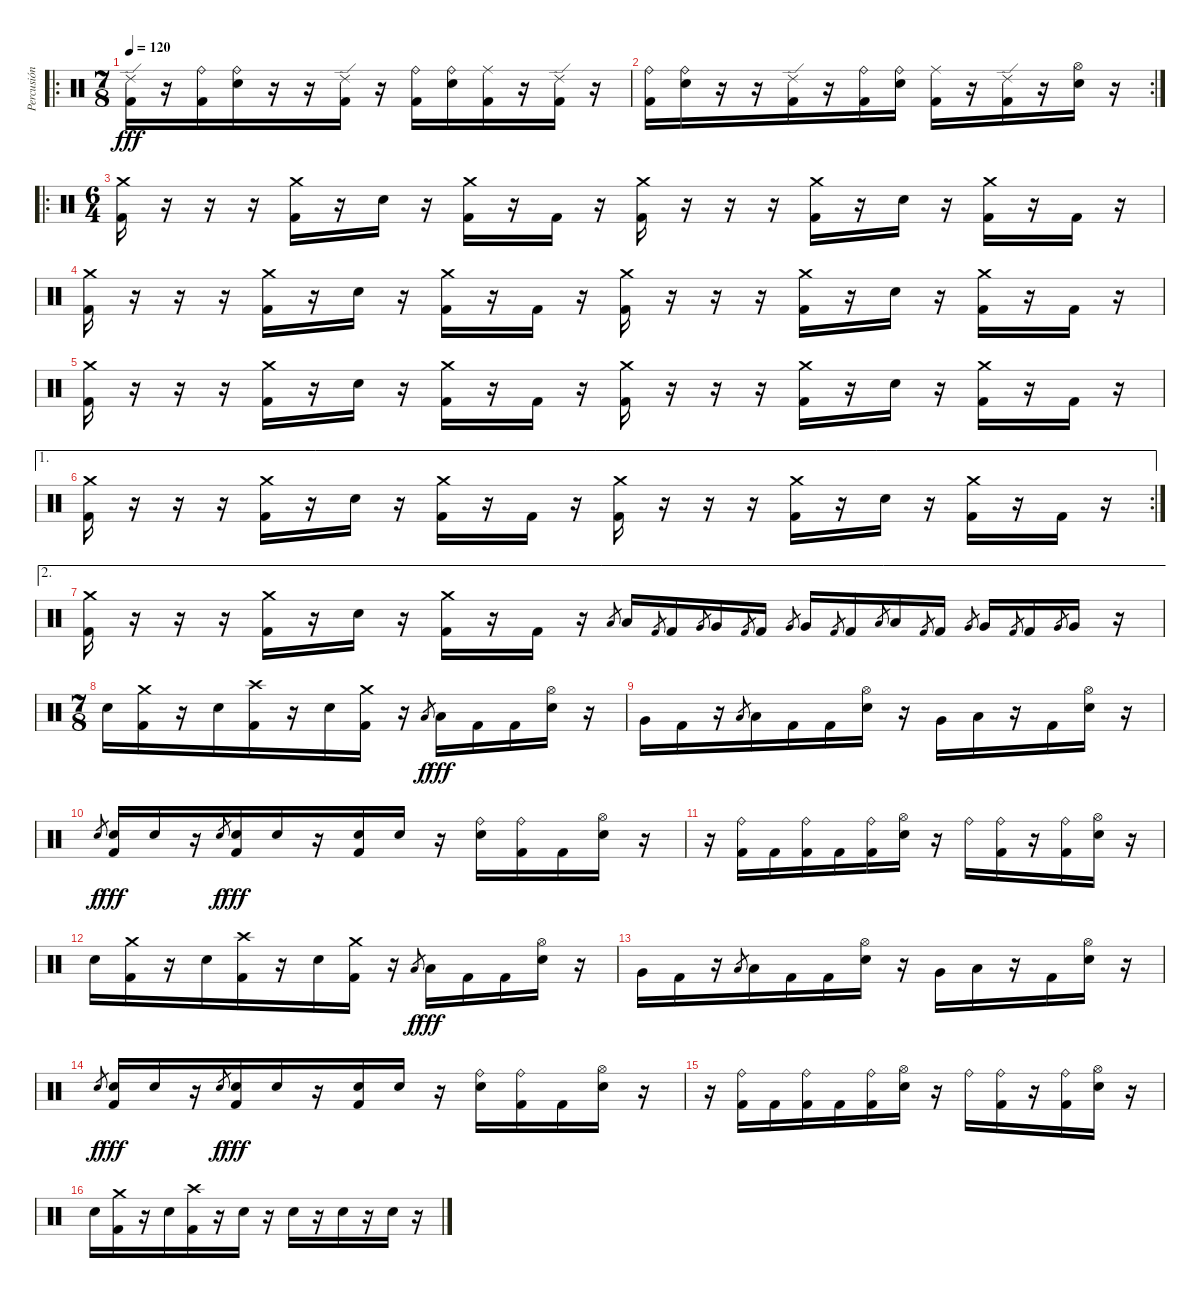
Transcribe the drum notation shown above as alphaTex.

\track ("Percusión" "Percusión") {instrument percussion}
\staff {score}
\articulation defaults
\ro
\ts (7 8)
\tempo 120
\clef neutral
\ks c
("Ride (edge) 2" "Kick (hit) 2").16{dy fff} r.16 ("Ride (bell)" "Kick (hit) 2").16 ("Ride (bell)" "Electric Snare (hit)").16 r.16 r.16 ("Ride (edge) 2" "Kick (hit) 2").16 r.16 ("Ride (bell)" "Kick (hit) 2").16 ("Ride (bell)" "Electric Snare (hit)").16 ("Ride (middle)" "Kick (hit) 2").16 r.16 ("Ride (edge) 2" "Kick (hit) 2").16 r.16 |
\rc 2
("Ride (bell)" "Kick (hit) 2").16 ("Ride (bell)" "Electric Snare (hit)").16 r.16 r.16 ("Ride (edge) 2" "Kick (hit) 2").16 r.16 ("Ride (bell)" "Kick (hit) 2").16 ("Ride (bell)" "Electric Snare (hit)").16 ("Ride (middle)" "Kick (hit) 2").16 r.16 ("Ride (edge) 2" "Kick (hit) 2").16 r.16 ("Hi-Hat (open)" "Electric Snare (hit)").16 r.16 |
\ro
\ts (6 4)
("Crash medium (hit)" "Kick (hit) 2").16 r.16 r.16 r.16 ("Crash medium (hit)" "Kick (hit) 2").16 r.16 "Electric Snare (hit)".16 r.16 ("Crash medium (hit)" "Kick (hit) 2").16 r.16 "Kick (hit) 2".16 r.16 ("Crash medium (hit)" "Kick (hit) 2").16 r.16 r.16 r.16 ("Crash medium (hit)" "Kick (hit) 2").16 r.16 "Electric Snare (hit)".16 r.16 ("Crash medium (hit)" "Kick (hit) 2").16 r.16 "Kick (hit) 2".16 r.16 |
("Crash medium (hit)" "Kick (hit) 2").16 r.16 r.16 r.16 ("Crash medium (hit)" "Kick (hit) 2").16 r.16 "Electric Snare (hit)".16 r.16 ("Crash medium (hit)" "Kick (hit) 2").16 r.16 "Kick (hit) 2".16 r.16 ("Crash medium (hit)" "Kick (hit) 2").16 r.16 r.16 r.16 ("Crash medium (hit)" "Kick (hit) 2").16 r.16 "Electric Snare (hit)".16 r.16 ("Crash medium (hit)" "Kick (hit) 2").16 r.16 "Kick (hit) 2".16 r.16 |
("Crash medium (hit)" "Kick (hit) 2").16 r.16 r.16 r.16 ("Crash medium (hit)" "Kick (hit) 2").16 r.16 "Electric Snare (hit)".16 r.16 ("Crash medium (hit)" "Kick (hit) 2").16 r.16 "Kick (hit) 2".16 r.16 ("Crash medium (hit)" "Kick (hit) 2").16 r.16 r.16 r.16 ("Crash medium (hit)" "Kick (hit) 2").16 r.16 "Electric Snare (hit)".16 r.16 ("Crash medium (hit)" "Kick (hit) 2").16 r.16 "Kick (hit) 2".16 r.16 |
\ae 1
\rc 2
("Crash medium (hit)" "Kick (hit) 2").16 r.16 r.16 r.16 ("Crash medium (hit)" "Kick (hit) 2").16 r.16 "Electric Snare (hit)".16 r.16 ("Crash medium (hit)" "Kick (hit) 2").16 r.16 "Kick (hit) 2".16 r.16 ("Crash medium (hit)" "Kick (hit) 2").16 r.16 r.16 r.16 ("Crash medium (hit)" "Kick (hit) 2").16 r.16 "Electric Snare (hit)".16 r.16 ("Crash medium (hit)" "Kick (hit) 2").16 r.16 "Kick (hit) 2".16 r.16 |
\ae 2
("Crash medium (hit)" "Kick (hit) 2").16 r.16 r.16 r.16 ("Crash medium (hit)" "Kick (hit) 2").16 r.16 "Electric Snare (hit)".16 r.16 ("Crash medium (hit)" "Kick (hit) 2").16 r.16 "Kick (hit) 2".16 r.16 "Low Tom (hit)".8{gr} "Low Tom (hit)".16 "Kick (hit) 2".8{gr} "Kick (hit) 2".16 "Very Low Tom (hit)".8{gr} "Very Low Tom (hit)".16 "Kick (hit) 2".8{gr} "Kick (hit) 2".16 "Very Low Tom (hit)".8{gr} "Very Low Tom (hit)".16 "Kick (hit) 2".8{gr} "Kick (hit) 2".16 "Low Tom (hit)".8{gr} "Low Tom (hit)".16 "Kick (hit) 2".8{gr} "Kick (hit) 2".16 "Very Low Tom (hit)".8{gr} "Very Low Tom (hit)".16 "Kick (hit) 2".8{gr} "Kick (hit) 2".16 "Very Low Tom (hit)".8{gr} "Very Low Tom (hit)".16 r.16 |
\ts (7 8)
"Electric Snare (hit)".16{volume 16} ("Crash medium (hit)" "Kick (hit) 2").16 r.16 "Electric Snare (hit)".16 ("Crash high (hit)" "Kick (hit) 2").16 r.16 "Electric Snare (hit)".16 ("Crash medium (hit)" "Kick (hit) 2").16 r.16 "Low Tom (hit)".8{gr dy f} "Low Tom (hit)".16{dy fff} "Kick (hit) 2".16 "Kick (hit) 2".16 ("Hi-Hat (open)" "Electric Snare (hit)").16 r.16 |
"Very Low Tom (hit)".16 "Kick (hit) 2".16 r.16 "Low Tom (hit)".8{gr} "Low Tom (hit)".16 "Kick (hit) 2".16 "Kick (hit) 2".16 ("Hi-Hat (open)" "Electric Snare (hit)").16 r.16 "Very Low Tom (hit)".16 "Low Tom (hit)".16 r.16 "Kick (hit) 2".16 ("Hi-Hat (open)" "Electric Snare (hit)").16 r.16 |
"Electric Snare (hit)".8{gr dy f} ("Electric Snare (hit)" "Kick (hit) 2").16{dy fff} "Electric Snare (hit)".16 r.16 "Electric Snare (hit)".8{gr dy f} ("Kick (hit) 2" "Electric Snare (hit)").16{dy fff} "Electric Snare (hit)".16 r.16 ("Electric Snare (hit)" "Kick (hit) 2").16 "Electric Snare (hit)".16 r.16 ("Ride (bell)" "Electric Snare (hit)").16 ("Ride (bell)" "Kick (hit) 2").16 "Kick (hit) 2".16 ("Hi-Hat (open)" "Electric Snare (hit)").16 r.16 |
r.16 ("Ride (bell)" "Kick (hit) 2").16 "Kick (hit) 2".16 ("Ride (bell)" "Kick (hit) 2").16 "Kick (hit) 2".16 ("Ride (bell)" "Kick (hit) 2").16 ("Hi-Hat (open)" "Electric Snare (hit)").16 r.16 "Ride (bell)".16 ("Ride (bell)" "Kick (hit) 2").16 r.16 ("Ride (bell)" "Kick (hit) 2").16 ("Hi-Hat (open)" "Electric Snare (hit)").16 r.16 |
"Electric Snare (hit)".16 ("Crash medium (hit)" "Kick (hit) 2").16 r.16 "Electric Snare (hit)".16 ("Crash high (hit)" "Kick (hit) 2").16 r.16 "Electric Snare (hit)".16 ("Crash medium (hit)" "Kick (hit) 2").16 r.16 "Low Tom (hit)".8{gr dy f} "Low Tom (hit)".16{dy fff} "Kick (hit) 2".16 "Kick (hit) 2".16 ("Hi-Hat (open)" "Electric Snare (hit)").16 r.16 |
"Very Low Tom (hit)".16 "Kick (hit) 2".16 r.16 "Low Tom (hit)".8{gr} "Low Tom (hit)".16 "Kick (hit) 2".16 "Kick (hit) 2".16 ("Hi-Hat (open)" "Electric Snare (hit)").16 r.16 "Very Low Tom (hit)".16 "Low Tom (hit)".16 r.16 "Kick (hit) 2".16 ("Hi-Hat (open)" "Electric Snare (hit)").16 r.16 |
"Electric Snare (hit)".8{gr dy f} ("Electric Snare (hit)" "Kick (hit) 2").16{dy fff} "Electric Snare (hit)".16 r.16 "Electric Snare (hit)".8{gr dy f} ("Kick (hit) 2" "Electric Snare (hit)").16{dy fff} "Electric Snare (hit)".16 r.16 ("Electric Snare (hit)" "Kick (hit) 2").16 "Electric Snare (hit)".16 r.16 ("Ride (bell)" "Electric Snare (hit)").16 ("Ride (bell)" "Kick (hit) 2").16 "Kick (hit) 2".16 ("Hi-Hat (open)" "Electric Snare (hit)").16 r.16 |
r.16 ("Ride (bell)" "Kick (hit) 2").16 "Kick (hit) 2".16 ("Ride (bell)" "Kick (hit) 2").16 "Kick (hit) 2".16 ("Ride (bell)" "Kick (hit) 2").16 ("Hi-Hat (open)" "Electric Snare (hit)").16 r.16 "Ride (bell)".16 ("Ride (bell)" "Kick (hit) 2").16 r.16 ("Ride (bell)" "Kick (hit) 2").16 ("Hi-Hat (open)" "Electric Snare (hit)").16 r.16 |
"Electric Snare (hit)".16 ("Crash medium (hit)" "Kick (hit) 2").16 r.16 "Electric Snare (hit)".16 ("Crash high (hit)" "Kick (hit) 2").16 r.16 "Electric Snare (hit)".16 r.16 "Electric Snare (hit)".16 r.16 "Electric Snare (hit)".16 r.16 "Electric Snare (hit)".16 r.16
